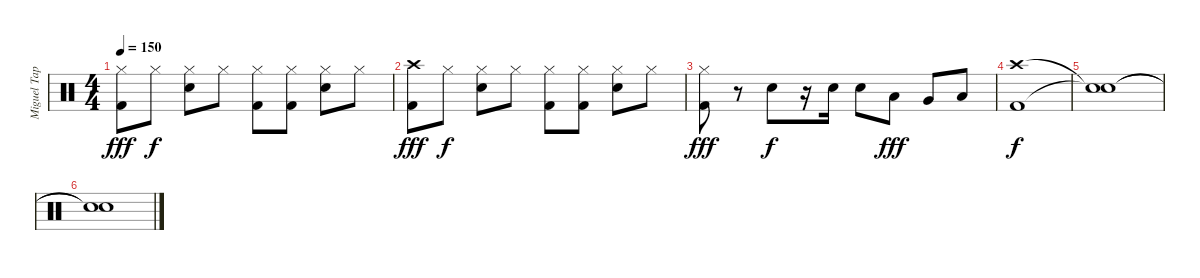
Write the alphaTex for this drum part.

\track ("Miguel Tapia" "Miguel Tap") {instrument percussion}
\staff {score}
\articulation defaults
\ts (4 4)
\tempo 150
\clef neutral
\ks c
("Hi-Hat (closed)" "Kick (hit) 2").8{dy fff} "Hi-Hat (closed)".8{dy f} ("Hi-Hat (closed)" "Snare (hit) 2").8 "Hi-Hat (closed)".8 ("Hi-Hat (closed)" "Kick (hit) 2").8 ("Hi-Hat (closed)" "Kick (hit) 2").8 ("Hi-Hat (closed)" "Snare (hit) 2").8 "Hi-Hat (closed)".8 |
("Crash high (hit)" "Kick (hit) 2").8{dy fff} "Hi-Hat (closed)".8{dy f} ("Hi-Hat (closed)" "Snare (hit) 2").8 "Hi-Hat (closed)".8 ("Hi-Hat (closed)" "Kick (hit) 2").8 ("Hi-Hat (closed)" "Kick (hit) 2").8 ("Hi-Hat (closed)" "Snare (hit) 2").8 "Hi-Hat (closed)".8 |
("Hi-Hat (closed)" "Kick (hit) 2").8{dy fff} r.8 "Snare (hit) 2".8{dy f} r.16 "Snare (hit) 2".16 "Snare (hit) 2".8 "Low Tom (hit)".8{dy fff} "Very Low Tom (hit)".8 "Low Floor Tom (hit)".8 |
("Crash high (hit)" "Kick (hit) 2").1{dy f} |
("Snare (hit)"{t} "Snare (hit)"{t}).1 |
("Snare (hit)"{t} "Snare (hit)"{t}).1
